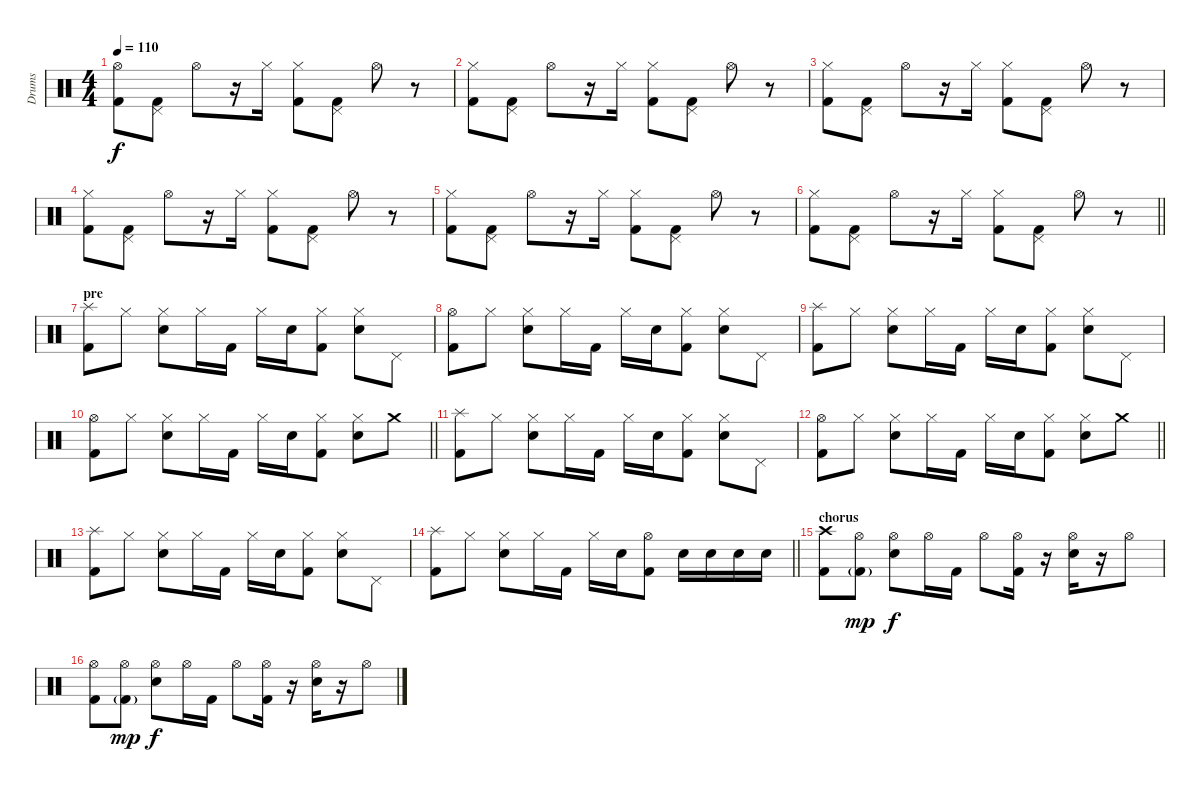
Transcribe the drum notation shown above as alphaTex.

\track ("Drums" "Drums") {instrument percussion}
\staff {score}
\articulation defaults
\ts (4 4)
\tempo 110
\clef neutral
\ks c
("Hi-Hat (open)" "Kick (hit) 2").8{dy f} ("Pedal Hi-Hat (hit)" "Kick (hit) 2").8 "Hi-Hat (open)".8 r.16 "Hi-Hat (closed)".16 ("Hi-Hat (closed)" "Kick (hit) 2").8 ("Pedal Hi-Hat (hit)" "Kick (hit) 2").8 "Hi-Hat (open)".8 r.8 |
("Hi-Hat (closed)" "Kick (hit) 2").8 ("Pedal Hi-Hat (hit)" "Kick (hit) 2").8 "Hi-Hat (open)".8 r.16 "Hi-Hat (closed)".16 ("Hi-Hat (closed)" "Kick (hit) 2").8 ("Pedal Hi-Hat (hit)" "Kick (hit) 2").8 "Hi-Hat (open)".8 r.8 |
("Hi-Hat (closed)" "Kick (hit) 2").8 ("Pedal Hi-Hat (hit)" "Kick (hit) 2").8 "Hi-Hat (open)".8 r.16 "Hi-Hat (closed)".16 ("Hi-Hat (closed)" "Kick (hit) 2").8 ("Pedal Hi-Hat (hit)" "Kick (hit) 2").8 "Hi-Hat (open)".8 r.8 |
("Hi-Hat (closed)" "Kick (hit) 2").8 ("Pedal Hi-Hat (hit)" "Kick (hit) 2").8 "Hi-Hat (open)".8 r.16 "Hi-Hat (closed)".16 ("Hi-Hat (closed)" "Kick (hit) 2").8 ("Pedal Hi-Hat (hit)" "Kick (hit) 2").8 "Hi-Hat (open)".8 r.8 |
("Hi-Hat (closed)" "Kick (hit) 2").8 ("Pedal Hi-Hat (hit)" "Kick (hit) 2").8 "Hi-Hat (open)".8 r.16 "Hi-Hat (closed)".16 ("Hi-Hat (closed)" "Kick (hit) 2").8 ("Pedal Hi-Hat (hit)" "Kick (hit) 2").8 "Hi-Hat (open)".8 r.8 |
\barLineRight lightlight
("Hi-Hat (closed)" "Kick (hit) 2").8 ("Pedal Hi-Hat (hit)" "Kick (hit) 2").8 "Hi-Hat (open)".8 r.16 "Hi-Hat (closed)".16 ("Hi-Hat (closed)" "Kick (hit) 2").8 ("Pedal Hi-Hat (hit)" "Kick (hit) 2").8 "Hi-Hat (open)".8 r.8 |
\section ("" "pre")
("Splash (hit)" "Kick (hit) 2").8 "Hi-Hat (closed)".8 ("Hi-Hat (closed)" "Snare (hit) 2").8 "Hi-Hat (closed)".16 "Kick (hit) 2".16 "Hi-Hat (closed)".16 "Snare (hit) 2".16 ("Hi-Hat (closed)" "Kick (hit) 2").8 ("Hi-Hat (closed)" "Snare (hit) 2").8 "Pedal Hi-Hat (hit)".8 |
("Hi-Hat (open)" "Kick (hit) 2").8 "Hi-Hat (closed)".8 ("Hi-Hat (closed)" "Snare (hit) 2").8 "Hi-Hat (closed)".16 "Kick (hit) 2".16 "Hi-Hat (closed)".16 "Snare (hit) 2".16 ("Hi-Hat (closed)" "Kick (hit) 2").8 ("Hi-Hat (closed)" "Snare (hit) 2").8 "Pedal Hi-Hat (hit)".8 |
("Splash (hit)" "Kick (hit) 2").8 "Hi-Hat (closed)".8 ("Hi-Hat (closed)" "Snare (hit) 2").8 "Hi-Hat (closed)".16 "Kick (hit) 2".16 "Hi-Hat (closed)".16 "Snare (hit) 2".16 ("Hi-Hat (closed)" "Kick (hit) 2").8 ("Hi-Hat (closed)" "Snare (hit) 2").8 "Pedal Hi-Hat (hit)".8 |
\barLineRight lightlight
("Hi-Hat (open)" "Kick (hit) 2").8 "Hi-Hat (closed)".8 ("Hi-Hat (closed)" "Snare (hit) 2").8 "Hi-Hat (closed)".16 "Kick (hit) 2".16 "Hi-Hat (closed)".16 "Snare (hit) 2".16 ("Hi-Hat (closed)" "Kick (hit) 2").8 ("Hi-Hat (closed)" "Snare (hit) 2").8 "Crash medium (hit)".8 |
("Splash (hit)" "Kick (hit) 2").8 "Hi-Hat (closed)".8 ("Hi-Hat (closed)" "Snare (hit) 2").8 "Hi-Hat (closed)".16 "Kick (hit) 2".16 "Hi-Hat (closed)".16 "Snare (hit) 2".16 ("Hi-Hat (closed)" "Kick (hit) 2").8 ("Hi-Hat (closed)" "Snare (hit) 2").8 "Pedal Hi-Hat (hit)".8 |
\barLineRight lightlight
("Hi-Hat (open)" "Kick (hit) 2").8 "Hi-Hat (closed)".8 ("Hi-Hat (closed)" "Snare (hit) 2").8 "Hi-Hat (closed)".16 "Kick (hit) 2".16 "Hi-Hat (closed)".16 "Snare (hit) 2".16 ("Hi-Hat (closed)" "Kick (hit) 2").8 ("Hi-Hat (closed)" "Snare (hit) 2").8 "Crash medium (hit)".8 |
("Splash (hit)" "Kick (hit) 2").8 "Hi-Hat (closed)".8 ("Hi-Hat (closed)" "Snare (hit) 2").8 "Hi-Hat (closed)".16 "Kick (hit) 2".16 "Hi-Hat (closed)".16 "Snare (hit) 2".16 ("Hi-Hat (closed)" "Kick (hit) 2").8 ("Hi-Hat (closed)" "Snare (hit) 2").8 "Pedal Hi-Hat (hit)".8 |
\barLineRight lightlight
("Splash (hit)" "Kick (hit) 2").8 "Hi-Hat (closed)".8 ("Hi-Hat (closed)" "Snare (hit) 2").8 "Hi-Hat (closed)".16 "Kick (hit) 2".16 "Hi-Hat (closed)".16 "Snare (hit) 2".16 ("Hi-Hat (open)" "Kick (hit) 2").8 "Snare (hit) 2".16 "Snare (hit) 2".16 "Snare (hit) 2".16 "Snare (hit) 2".16 |
\section ("" "chorus")
("Crash high (hit)" "Kick (hit) 2").8 ("Hi-Hat (open)" "Kick (hit) 2"{g}).8{dy mp} ("Hi-Hat (open)" "Electric Snare (hit)").8{dy f} "Hi-Hat (open)".16 "Kick (hit) 2".16 "Hi-Hat (open)".8 ("Hi-Hat (open)" "Kick (hit) 2").16 r.16 ("Hi-Hat (open)" "Electric Snare (hit)").16 r.16 "Hi-Hat (open)".8 |
("Hi-Hat (open)" "Kick (hit) 2").8 ("Hi-Hat (open)" "Kick (hit) 2"{g}).8{dy mp} ("Hi-Hat (open)" "Electric Snare (hit)").8{dy f} "Hi-Hat (open)".16 "Kick (hit) 2".16 "Hi-Hat (open)".8 ("Hi-Hat (open)" "Kick (hit) 2").16 r.16 ("Hi-Hat (open)" "Electric Snare (hit)").16 r.16 "Hi-Hat (open)".8
